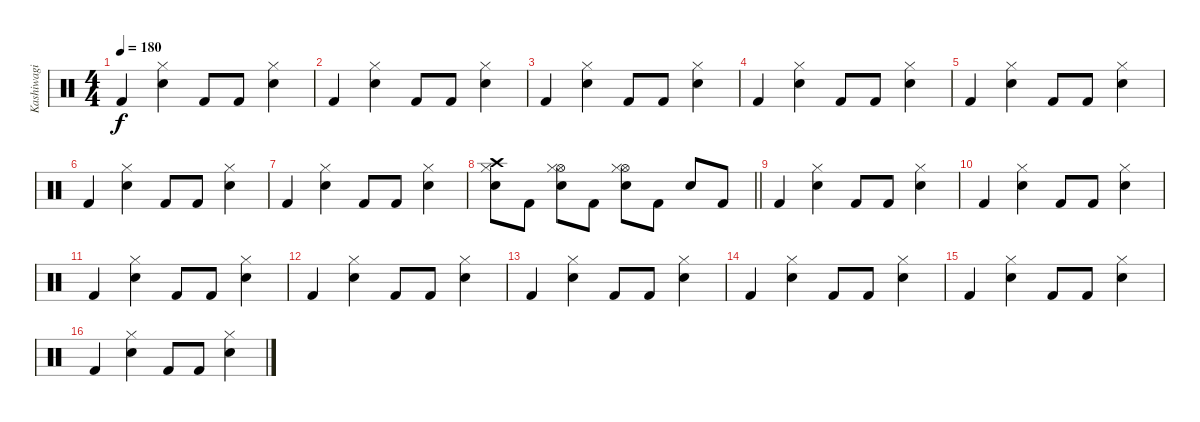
\track ("Kashiwagi Yuki" "Kashiwagi ") {instrument percussion}
\staff {score}
\articulation defaults
\ts (4 4)
\tempo 180
\clef neutral
\ks c "Kick (hit) 2".4{dy f}
("Hi-Hat (closed)" "Electric Snare (hit)").4 "Kick (hit) 2".8 "Kick (hit) 2".8 ("Hi-Hat (closed)" "Electric Snare (hit)").4 |
"Kick (hit) 2".4 ("Hi-Hat (closed)" "Electric Snare (hit)").4 "Kick (hit) 2".8 "Kick (hit) 2".8 ("Hi-Hat (closed)" "Electric Snare (hit)").4 |
"Kick (hit) 2".4 ("Hi-Hat (closed)" "Electric Snare (hit)").4 "Kick (hit) 2".8 "Kick (hit) 2".8 ("Hi-Hat (closed)" "Electric Snare (hit)").4 |
"Kick (hit) 2".4 ("Hi-Hat (closed)" "Electric Snare (hit)").4 "Kick (hit) 2".8 "Kick (hit) 2".8 ("Hi-Hat (closed)" "Electric Snare (hit)").4 |
"Kick (hit) 2".4 ("Hi-Hat (closed)" "Electric Snare (hit)").4 "Kick (hit) 2".8 "Kick (hit) 2".8 ("Hi-Hat (closed)" "Electric Snare (hit)").4 |
"Kick (hit) 2".4 ("Hi-Hat (closed)" "Electric Snare (hit)").4 "Kick (hit) 2".8 "Kick (hit) 2".8 ("Hi-Hat (closed)" "Electric Snare (hit)").4 |
"Kick (hit) 2".4 ("Hi-Hat (closed)" "Electric Snare (hit)").4 "Kick (hit) 2".8 "Kick (hit) 2".8 ("Hi-Hat (closed)" "Electric Snare (hit)").4 |
\barLineRight lightlight
("Crash high (hit)" "Hi-Hat (closed)" "Electric Snare (hit)").8 "Kick (hit) 2".8 ("Hi-Hat (open)" "Hi-Hat (closed)" "Electric Snare (hit)").8 "Kick (hit) 2".8 ("Hi-Hat (open)" "Hi-Hat (closed)" "Electric Snare (hit)").8 "Kick (hit) 2".8 "Electric Snare (hit)".8 "Kick (hit) 2".8 |
"Kick (hit) 2".4 ("Hi-Hat (closed)" "Electric Snare (hit)").4 "Kick (hit) 2".8 "Kick (hit) 2".8 ("Hi-Hat (closed)" "Electric Snare (hit)").4 |
"Kick (hit) 2".4 ("Hi-Hat (closed)" "Electric Snare (hit)").4 "Kick (hit) 2".8 "Kick (hit) 2".8 ("Hi-Hat (closed)" "Electric Snare (hit)").4 |
"Kick (hit) 2".4 ("Hi-Hat (closed)" "Electric Snare (hit)").4 "Kick (hit) 2".8 "Kick (hit) 2".8 ("Hi-Hat (closed)" "Electric Snare (hit)").4 |
"Kick (hit) 2".4 ("Hi-Hat (closed)" "Electric Snare (hit)").4 "Kick (hit) 2".8 "Kick (hit) 2".8 ("Hi-Hat (closed)" "Electric Snare (hit)").4 |
"Kick (hit) 2".4 ("Hi-Hat (closed)" "Electric Snare (hit)").4 "Kick (hit) 2".8 "Kick (hit) 2".8 ("Hi-Hat (closed)" "Electric Snare (hit)").4 |
"Kick (hit) 2".4 ("Hi-Hat (closed)" "Electric Snare (hit)").4 "Kick (hit) 2".8 "Kick (hit) 2".8 ("Hi-Hat (closed)" "Electric Snare (hit)").4 |
"Kick (hit) 2".4 ("Hi-Hat (closed)" "Electric Snare (hit)").4 "Kick (hit) 2".8 "Kick (hit) 2".8 ("Hi-Hat (closed)" "Electric Snare (hit)").4 |
"Kick (hit) 2".4 ("Hi-Hat (closed)" "Electric Snare (hit)").4 "Kick (hit) 2".8 "Kick (hit) 2".8 ("Hi-Hat (closed)" "Electric Snare (hit)").4
